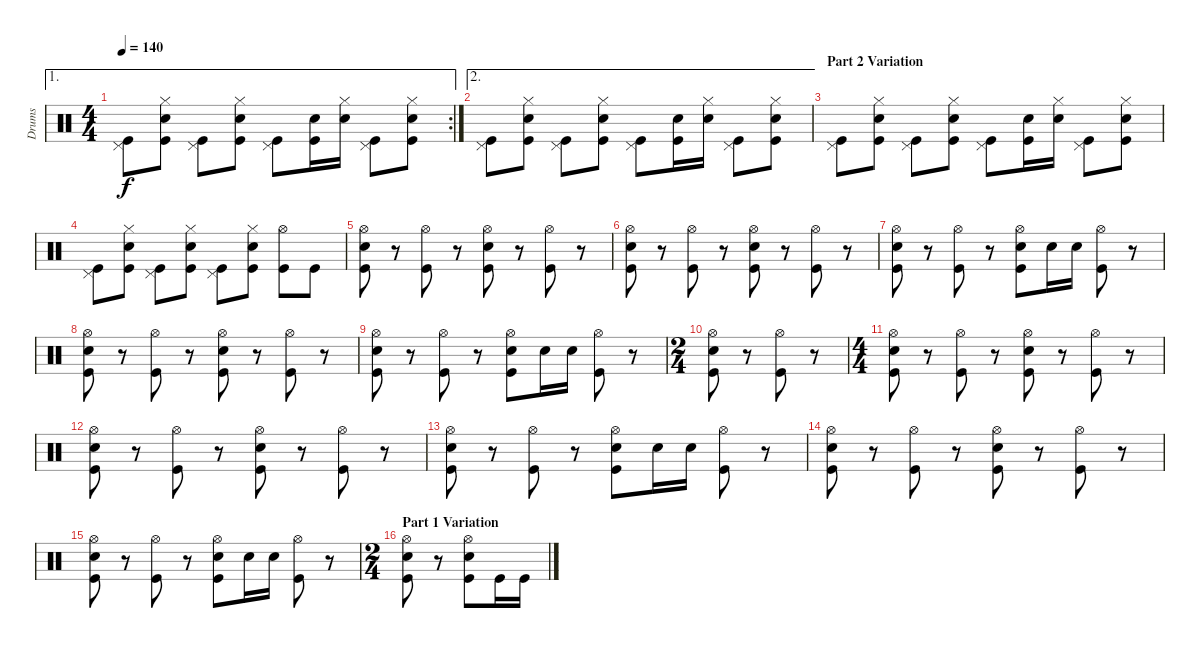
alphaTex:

\track ("Drums" "Drums") {instrument percussion}
\staff {score}
\articulation defaults
\ae 1
\rc 2
\ts (4 4)
\tempo 140
\clef neutral
\ks c
("Kick (hit)" "Pedal Hi-Hat (hit)").8{dy f} ("Kick (hit)" "Snare (hit) 2" "Hi-Hat (closed)").8 ("Kick (hit)" "Pedal Hi-Hat (hit)").8 ("Kick (hit)" "Snare (hit) 2" "Hi-Hat (closed)").8 ("Kick (hit)" "Pedal Hi-Hat (hit)").8 ("Kick (hit)" "Snare (hit) 2").16 ("Snare (hit) 2" "Hi-Hat (closed)").16 ("Kick (hit)" "Pedal Hi-Hat (hit)").8 ("Kick (hit)" "Snare (hit) 2" "Hi-Hat (closed)").8 |
\ae 2
("Kick (hit)" "Pedal Hi-Hat (hit)").8 ("Kick (hit)" "Snare (hit) 2" "Hi-Hat (closed)").8 ("Kick (hit)" "Pedal Hi-Hat (hit)").8 ("Kick (hit)" "Snare (hit) 2" "Hi-Hat (closed)").8 ("Kick (hit)" "Pedal Hi-Hat (hit)").8 ("Kick (hit)" "Snare (hit) 2").16 ("Snare (hit) 2" "Hi-Hat (closed)").16 ("Kick (hit)" "Pedal Hi-Hat (hit)").8 ("Kick (hit)" "Snare (hit) 2" "Hi-Hat (closed)").8 |
\section ("" "Part 2 Variation")
("Kick (hit)" "Pedal Hi-Hat (hit)").8 ("Kick (hit)" "Snare (hit) 2" "Hi-Hat (closed)").8 ("Kick (hit)" "Pedal Hi-Hat (hit)").8 ("Kick (hit)" "Snare (hit) 2" "Hi-Hat (closed)").8 ("Kick (hit)" "Pedal Hi-Hat (hit)").8 ("Kick (hit)" "Snare (hit) 2").16 ("Snare (hit) 2" "Hi-Hat (closed)").16 ("Kick (hit)" "Pedal Hi-Hat (hit)").8 ("Kick (hit)" "Snare (hit) 2" "Hi-Hat (closed)").8 |
("Kick (hit)" "Pedal Hi-Hat (hit)").8 ("Kick (hit)" "Snare (hit) 2" "Hi-Hat (closed)").8 ("Kick (hit)" "Pedal Hi-Hat (hit)").8 ("Kick (hit)" "Snare (hit) 2" "Hi-Hat (closed)").8 ("Kick (hit)" "Pedal Hi-Hat (hit)").8 ("Kick (hit)" "Snare (hit) 2" "Hi-Hat (closed)").8 ("Kick (hit)" "Hi-Hat (open)").8 "Kick (hit)".8 |
("Kick (hit)" "Snare (hit) 2" "Hi-Hat (open)").8 r.8 ("Kick (hit)" "Hi-Hat (open)").8 r.8 ("Kick (hit)" "Snare (hit) 2" "Hi-Hat (open)").8 r.8 ("Kick (hit)" "Hi-Hat (open)").8 r.8 |
("Kick (hit)" "Snare (hit) 2" "Hi-Hat (open)").8 r.8 ("Kick (hit)" "Hi-Hat (open)").8 r.8 ("Kick (hit)" "Snare (hit) 2" "Hi-Hat (open)").8 r.8 ("Kick (hit)" "Hi-Hat (open)").8 r.8 |
("Kick (hit)" "Snare (hit) 2" "Hi-Hat (open)").8 r.8 ("Kick (hit)" "Hi-Hat (open)").8 r.8 ("Kick (hit)" "Snare (hit) 2" "Hi-Hat (open)").8 "Snare (hit) 2".16 "Snare (hit) 2".16 ("Kick (hit)" "Hi-Hat (open)").8 r.8 |
("Kick (hit)" "Snare (hit) 2" "Hi-Hat (open)").8 r.8 ("Kick (hit)" "Hi-Hat (open)").8 r.8 ("Kick (hit)" "Snare (hit) 2" "Hi-Hat (open)").8 r.8 ("Kick (hit)" "Hi-Hat (open)").8 r.8 |
("Kick (hit)" "Snare (hit) 2" "Hi-Hat (open)").8 r.8 ("Kick (hit)" "Hi-Hat (open)").8 r.8 ("Kick (hit)" "Snare (hit) 2" "Hi-Hat (open)").8 "Snare (hit) 2".16 "Snare (hit) 2".16 ("Kick (hit)" "Hi-Hat (open)").8 r.8 |
\ts (2 4)
("Kick (hit)" "Snare (hit) 2" "Hi-Hat (open)").8 r.8 ("Kick (hit)" "Hi-Hat (open)").8 r.8 |
\ts (4 4)
("Kick (hit)" "Snare (hit) 2" "Hi-Hat (open)").8 r.8 ("Kick (hit)" "Hi-Hat (open)").8 r.8 ("Kick (hit)" "Snare (hit) 2" "Hi-Hat (open)").8 r.8 ("Kick (hit)" "Hi-Hat (open)").8 r.8 |
("Kick (hit)" "Snare (hit) 2" "Hi-Hat (open)").8 r.8 ("Kick (hit)" "Hi-Hat (open)").8 r.8 ("Kick (hit)" "Snare (hit) 2" "Hi-Hat (open)").8 r.8 ("Kick (hit)" "Hi-Hat (open)").8 r.8 |
("Kick (hit)" "Snare (hit) 2" "Hi-Hat (open)").8 r.8 ("Kick (hit)" "Hi-Hat (open)").8 r.8 ("Kick (hit)" "Snare (hit) 2" "Hi-Hat (open)").8 "Snare (hit) 2".16 "Snare (hit) 2".16 ("Kick (hit)" "Hi-Hat (open)").8 r.8 |
("Kick (hit)" "Snare (hit) 2" "Hi-Hat (open)").8 r.8 ("Kick (hit)" "Hi-Hat (open)").8 r.8 ("Kick (hit)" "Snare (hit) 2" "Hi-Hat (open)").8 r.8 ("Kick (hit)" "Hi-Hat (open)").8 r.8 |
("Kick (hit)" "Snare (hit) 2" "Hi-Hat (open)").8 r.8 ("Kick (hit)" "Hi-Hat (open)").8 r.8 ("Kick (hit)" "Snare (hit) 2" "Hi-Hat (open)").8 "Snare (hit) 2".16 "Snare (hit) 2".16 ("Kick (hit)" "Hi-Hat (open)").8 r.8 |
\ts (2 4)
\section ("" "Part 1 Variation")
("Kick (hit)" "Snare (hit) 2" "Hi-Hat (open)").8 r.8 ("Kick (hit)" "Snare (hit) 2" "Hi-Hat (open)").8 "Kick (hit)".16 "Kick (hit)".16
